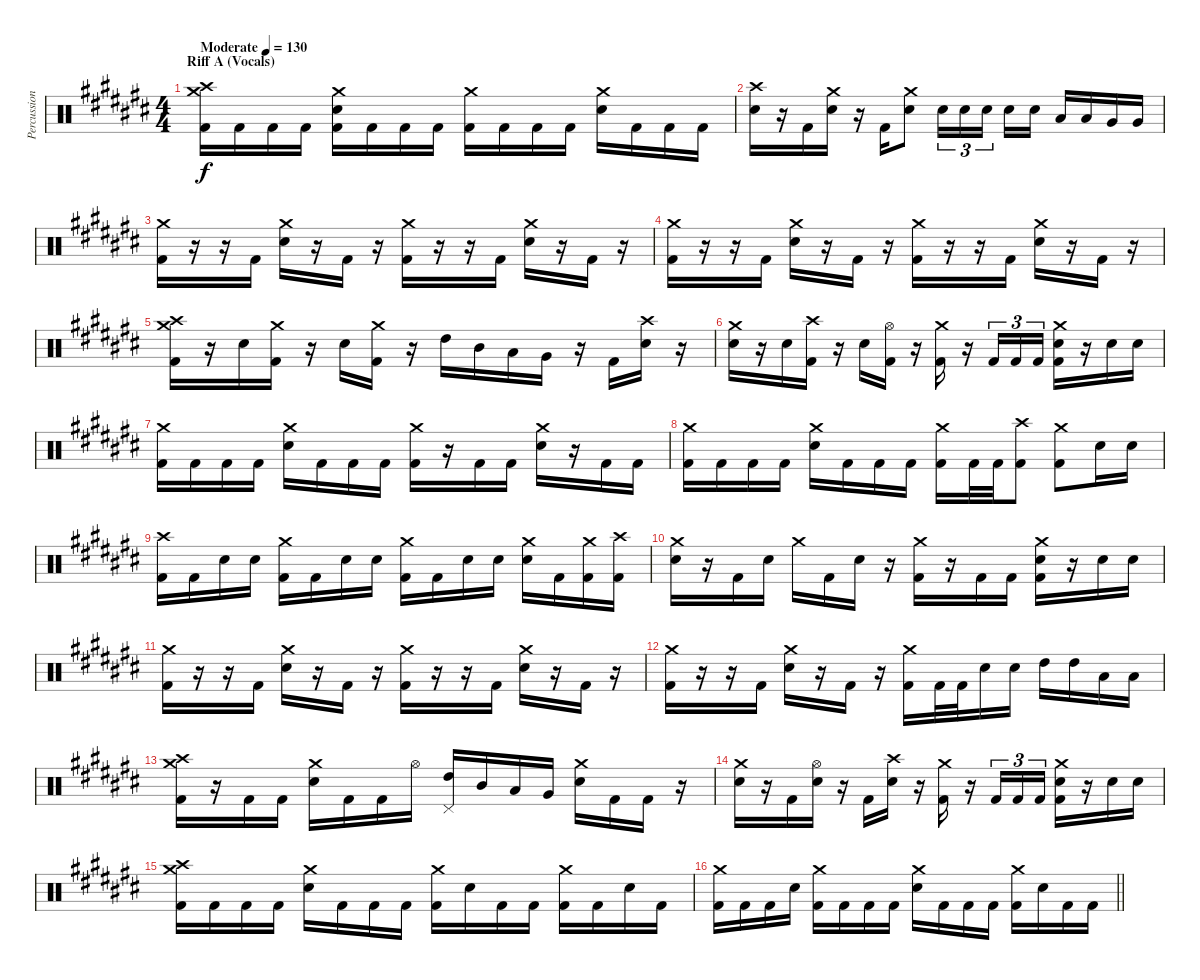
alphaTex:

\track ("Percussion" "Percussion") {instrument percussion}
\staff {score}
\articulation defaults
\ts (4 4)
\section ("" "Riff A (Vocals)")
\tempo (130 "Moderate")
\clef neutral
\ks a#minor
("Crash medium (hit)" "Crash high (hit)" "Kick (hit) 2").16{dy f} "Kick (hit) 2".16 "Kick (hit) 2".16 "Kick (hit) 2".16 ("Crash medium (hit)" "Electric Snare (hit)" "Kick (hit) 2").16 "Kick (hit) 2".16 "Kick (hit) 2".16 "Kick (hit) 2".16 ("Crash medium (hit)" "Kick (hit) 2").16 "Kick (hit) 2".16 "Kick (hit) 2".16 "Kick (hit) 2".16 ("Crash medium (hit)" "Electric Snare (hit)").16 "Kick (hit) 2".16 "Kick (hit) 2".16 "Kick (hit) 2".16 |
("Crash high (hit)" "Electric Snare (hit)").16 r.16 "Kick (hit) 2".16 ("Crash medium (hit)" "Electric Snare (hit)").16 r.16 "Kick (hit) 2".16 ("Crash medium (hit)" "Electric Snare (hit)").8 "Electric Snare (hit)".16{tu (3 2)} "Electric Snare (hit)".16{tu (3 2)} "Electric Snare (hit)".16{tu (3 2) beam splitsecondary} "Electric Snare (hit)".16 "Electric Snare (hit)".16 "Low Tom (hit)".16 "Low Tom (hit)".16 "Very Low Tom (hit)".16 "Very Low Tom (hit)".16 |
("Crash medium (hit)" "Kick (hit) 2").16 r.16 r.16 "Kick (hit) 2".16 ("Crash medium (hit)" "Electric Snare (hit)").16 r.16 "Kick (hit) 2".16 r.16 ("Crash medium (hit)" "Kick (hit) 2").16 r.16 r.16 "Kick (hit) 2".16 ("Crash medium (hit)" "Electric Snare (hit)").16 r.16 "Kick (hit) 2".16 r.16 |
("Crash medium (hit)" "Kick (hit) 2").16 r.16 r.16 "Kick (hit) 2".16 ("Crash medium (hit)" "Electric Snare (hit)").16 r.16 "Kick (hit) 2".16 r.16 ("Crash medium (hit)" "Kick (hit) 2").16 r.16 r.16 "Kick (hit) 2".16 ("Crash medium (hit)" "Electric Snare (hit)").16 r.16 "Kick (hit) 2".16 r.16 |
("Crash medium (hit)" "Crash high (hit)" "Kick (hit) 2").16 r.16 "Electric Snare (hit)".16 ("Crash medium (hit)" "Kick (hit) 2").16 r.16 "Electric Snare (hit)".16 ("Crash medium (hit)" "Kick (hit) 2").16 r.16 "High Tom (hit)".16 "Mid Tom (hit)".16 "Low Tom (hit)".16 "Very Low Tom (hit)".16 r.16 "Kick (hit) 2".16 ("Crash high (hit)" "Electric Snare (hit)").16 r.16 |
("Crash medium (hit)" "Electric Snare (hit)").16 r.16 "Electric Snare (hit)".16 ("Crash high (hit)" "Kick (hit) 2").16 r.16 "Electric Snare (hit)".16 ("Hi-Hat (open)" "Kick (hit) 2").16 r.16 ("Crash medium (hit)" "Kick (hit) 2").16 r.16 "Kick (hit) 2".16{tu (3 2)} "Kick (hit) 2".16{tu (3 2)} "Kick (hit) 2".16{tu (3 2)} ("Crash medium (hit)" "Electric Snare (hit)" "Kick (hit) 2").16 r.16 "Electric Snare (hit)".16 "Electric Snare (hit)".16 |
("Crash medium (hit)" "Kick (hit) 2").16 "Kick (hit) 2".16 "Kick (hit) 2".16 "Kick (hit) 2".16 ("Crash medium (hit)" "Electric Snare (hit)").16 "Kick (hit) 2".16 "Kick (hit) 2".16 "Kick (hit) 2".16 ("Crash medium (hit)" "Kick (hit) 2").16 r.16 "Kick (hit) 2".16 "Kick (hit) 2".16 ("Crash medium (hit)" "Electric Snare (hit)").16 r.16 "Kick (hit) 2".16 "Kick (hit) 2".16 |
("Crash medium (hit)" "Kick (hit) 2").16 "Kick (hit) 2".16 "Kick (hit) 2".16 "Kick (hit) 2".16 ("Crash medium (hit)" "Electric Snare (hit)").16 "Kick (hit) 2".16 "Kick (hit) 2".16 "Kick (hit) 2".16 ("Crash medium (hit)" "Kick (hit) 2").16 "Kick (hit) 2".32 "Kick (hit) 2".32 ("Crash high (hit)" "Kick (hit) 2").8 ("Crash medium (hit)" "Kick (hit) 2").8 "Electric Snare (hit)".16 "Electric Snare (hit)".16 |
("Crash high (hit)" "Kick (hit) 2").16 "Kick (hit) 2".16 "Electric Snare (hit)".16 "Electric Snare (hit)".16 ("Crash medium (hit)" "Kick (hit) 2").16 "Kick (hit) 2".16 "Electric Snare (hit)".16 "Electric Snare (hit)".16 ("Crash medium (hit)" "Kick (hit) 2").16 "Kick (hit) 2".16 "Electric Snare (hit)".16 "Electric Snare (hit)".16 ("Crash medium (hit)" "Electric Snare (hit)").16 "Kick (hit) 2".16 ("Crash medium (hit)" "Kick (hit) 2").16 ("Crash high (hit)" "Kick (hit) 2").16 |
("Crash medium (hit)" "Electric Snare (hit)").16 r.16 "Kick (hit) 2".16 "Electric Snare (hit)".16 "Crash medium (hit)".16 "Kick (hit) 2".16 "Electric Snare (hit)".16 r.16 ("Crash medium (hit)" "Kick (hit) 2").16 r.16 "Kick (hit) 2".16 "Kick (hit) 2".16 ("Crash medium (hit)" "Electric Snare (hit)" "Kick (hit) 2").16 r.16 "Electric Snare (hit)".16 "Electric Snare (hit)".16 |
("Crash medium (hit)" "Kick (hit) 2").16 r.16 r.16 "Kick (hit) 2".16 ("Crash medium (hit)" "Electric Snare (hit)").16 r.16 "Kick (hit) 2".16 r.16 ("Crash medium (hit)" "Kick (hit) 2").16 r.16 r.16 "Kick (hit) 2".16 ("Crash medium (hit)" "Electric Snare (hit)").16 r.16 "Kick (hit) 2".16 r.16 |
("Crash medium (hit)" "Kick (hit) 2").16 r.16 r.16 "Kick (hit) 2".16 ("Crash medium (hit)" "Electric Snare (hit)").16 r.16 "Kick (hit) 2".16 r.16 ("Crash medium (hit)" "Kick (hit) 2").16 "Kick (hit) 2".32 "Kick (hit) 2".32 "Electric Snare (hit)".16 "Electric Snare (hit)".16 "High Tom (hit)".16 "High Tom (hit)".16 "Low Tom (hit)".16 "Low Tom (hit)".16 |
("Crash medium (hit)" "Crash high (hit)" "Kick (hit) 2").16 r.16 "Kick (hit) 2".16 "Kick (hit) 2".16 ("Crash medium (hit)" "Electric Snare (hit)").16 "Kick (hit) 2".16 "Kick (hit) 2".16 "Hi-Hat (open)".16 ("Pedal Hi-Hat (hit)" "High Tom (hit)").16 "Mid Tom (hit)".16 "Low Tom (hit)".16 "Very Low Tom (hit)".16 ("Crash medium (hit)" "Electric Snare (hit)").16 "Kick (hit) 2".16 "Kick (hit) 2".16 r.16 |
("Crash medium (hit)" "Electric Snare (hit)").16 r.16 "Kick (hit) 2".16 ("Hi-Hat (open)" "Electric Snare (hit)").16 r.16 "Kick (hit) 2".16 ("Crash high (hit)" "Electric Snare (hit)").16 r.16 ("Crash medium (hit)" "Kick (hit) 2").16 r.16 "Kick (hit) 2".16{tu (3 2)} "Kick (hit) 2".16{tu (3 2)} "Kick (hit) 2".16{tu (3 2)} ("Crash medium (hit)" "Electric Snare (hit)" "Kick (hit) 2").16 r.16 "Electric Snare (hit)".16 "Electric Snare (hit)".16 |
("Crash medium (hit)" "Crash high (hit)" "Kick (hit) 2").16 "Kick (hit) 2".16 "Kick (hit) 2".16 "Kick (hit) 2".16 ("Crash medium (hit)" "Electric Snare (hit)").16 "Kick (hit) 2".16 "Kick (hit) 2".16 "Kick (hit) 2".16 ("Crash medium (hit)" "Kick (hit) 2").16 "Electric Snare (hit)".16 "Kick (hit) 2".16 "Kick (hit) 2".16 ("Crash medium (hit)" "Kick (hit) 2").16 "Kick (hit) 2".16 "Electric Snare (hit)".16 "Kick (hit) 2".16 |
\barLineRight lightlight
("Crash medium (hit)" "Kick (hit) 2").16 "Kick (hit) 2".16 "Kick (hit) 2".16 "Electric Snare (hit)".16 ("Crash medium (hit)" "Kick (hit) 2").16 "Kick (hit) 2".16 "Kick (hit) 2".16 "Kick (hit) 2".16 ("Crash medium (hit)" "Electric Snare (hit)").16 "Kick (hit) 2".16 "Kick (hit) 2".16 "Kick (hit) 2".16 ("Crash medium (hit)" "Kick (hit) 2").16 "Electric Snare (hit)".16 "Kick (hit) 2".16 "Kick (hit) 2".16
